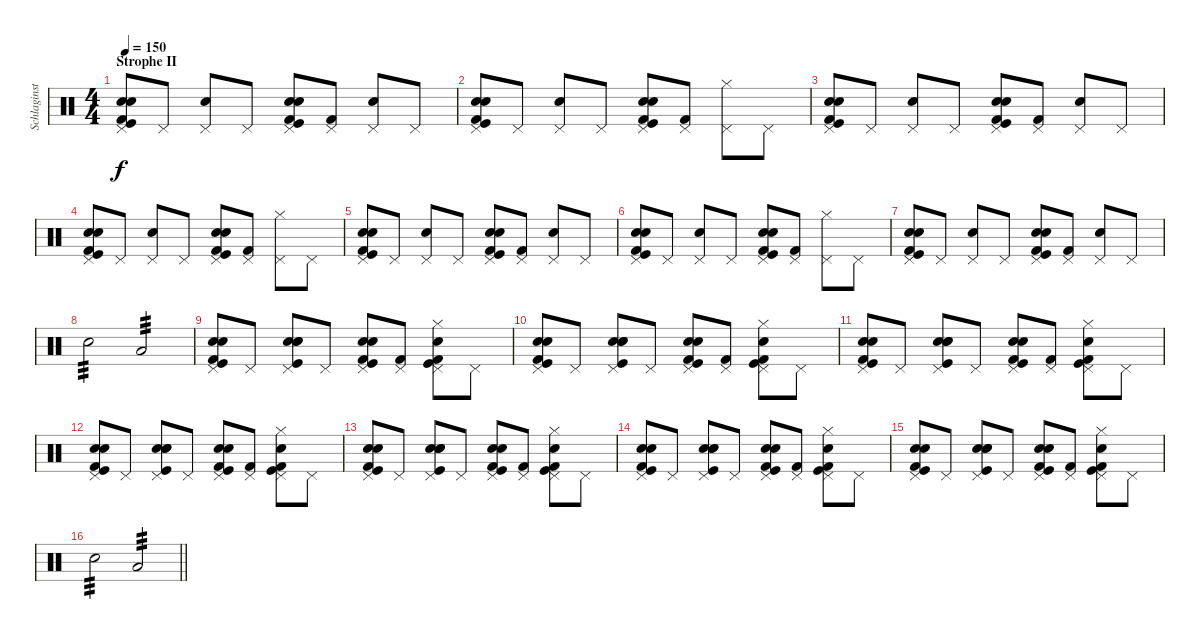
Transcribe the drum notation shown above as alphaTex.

\track ("Schlaginstrumente - Auswahl" "Schlaginst") {instrument percussion}
\staff {score}
\articulation defaults
\ts (4 4)
\section ("" "Strophe II")
\tempo 150
\clef neutral
\ks c
("Pedal Hi-Hat (hit)" "Kick (hit) 2" "Kick (hit)" "Electric Snare (hit)" "Snare (hit) 2").8{dy f} "Pedal Hi-Hat (hit)".8 ("Pedal Hi-Hat (hit)" "Electric Snare (hit)").8 "Pedal Hi-Hat (hit)".8 ("Pedal Hi-Hat (hit)" "Kick (hit) 2" "Kick (hit)" "Electric Snare (hit)" "Snare (hit) 2").8 ("Pedal Hi-Hat (hit)" "Kick (hit) 2").8 ("Pedal Hi-Hat (hit)" "Electric Snare (hit)").8 "Pedal Hi-Hat (hit)".8 |
("Pedal Hi-Hat (hit)" "Kick (hit) 2" "Kick (hit)" "Electric Snare (hit)" "Snare (hit) 2").8 "Pedal Hi-Hat (hit)".8 ("Pedal Hi-Hat (hit)" "Electric Snare (hit)").8 "Pedal Hi-Hat (hit)".8 ("Pedal Hi-Hat (hit)" "Kick (hit) 2" "Kick (hit)" "Electric Snare (hit)" "Snare (hit) 2").8 ("Pedal Hi-Hat (hit)" "Kick (hit) 2").8 ("Pedal Hi-Hat (hit)" "Hi-Hat (closed)").8 "Pedal Hi-Hat (hit)".8 |
("Pedal Hi-Hat (hit)" "Kick (hit) 2" "Kick (hit)" "Electric Snare (hit)" "Snare (hit) 2").8 "Pedal Hi-Hat (hit)".8 ("Pedal Hi-Hat (hit)" "Electric Snare (hit)").8 "Pedal Hi-Hat (hit)".8 ("Pedal Hi-Hat (hit)" "Kick (hit) 2" "Kick (hit)" "Electric Snare (hit)" "Snare (hit) 2").8 ("Pedal Hi-Hat (hit)" "Kick (hit) 2").8 ("Pedal Hi-Hat (hit)" "Electric Snare (hit)").8 "Pedal Hi-Hat (hit)".8 |
("Pedal Hi-Hat (hit)" "Kick (hit) 2" "Kick (hit)" "Electric Snare (hit)" "Snare (hit) 2").8 "Pedal Hi-Hat (hit)".8 ("Pedal Hi-Hat (hit)" "Electric Snare (hit)").8 "Pedal Hi-Hat (hit)".8 ("Pedal Hi-Hat (hit)" "Kick (hit) 2" "Kick (hit)" "Electric Snare (hit)" "Snare (hit) 2").8 ("Pedal Hi-Hat (hit)" "Kick (hit) 2").8 ("Pedal Hi-Hat (hit)" "Hi-Hat (closed)").8 "Pedal Hi-Hat (hit)".8 |
("Pedal Hi-Hat (hit)" "Kick (hit) 2" "Kick (hit)" "Electric Snare (hit)" "Snare (hit) 2").8 "Pedal Hi-Hat (hit)".8 ("Pedal Hi-Hat (hit)" "Electric Snare (hit)").8 "Pedal Hi-Hat (hit)".8 ("Pedal Hi-Hat (hit)" "Kick (hit) 2" "Kick (hit)" "Electric Snare (hit)" "Snare (hit) 2").8 ("Pedal Hi-Hat (hit)" "Kick (hit) 2").8 ("Pedal Hi-Hat (hit)" "Electric Snare (hit)").8 "Pedal Hi-Hat (hit)".8 |
("Pedal Hi-Hat (hit)" "Kick (hit) 2" "Kick (hit)" "Electric Snare (hit)" "Snare (hit) 2").8 "Pedal Hi-Hat (hit)".8 ("Pedal Hi-Hat (hit)" "Electric Snare (hit)").8 "Pedal Hi-Hat (hit)".8 ("Pedal Hi-Hat (hit)" "Kick (hit) 2" "Kick (hit)" "Electric Snare (hit)" "Snare (hit) 2").8 ("Pedal Hi-Hat (hit)" "Kick (hit) 2").8 ("Pedal Hi-Hat (hit)" "Hi-Hat (closed)").8 "Pedal Hi-Hat (hit)".8 |
("Pedal Hi-Hat (hit)" "Kick (hit) 2" "Kick (hit)" "Electric Snare (hit)" "Snare (hit) 2").8 "Pedal Hi-Hat (hit)".8 ("Pedal Hi-Hat (hit)" "Electric Snare (hit)").8 "Pedal Hi-Hat (hit)".8 ("Pedal Hi-Hat (hit)" "Kick (hit) 2" "Kick (hit)" "Electric Snare (hit)" "Snare (hit) 2").8 ("Pedal Hi-Hat (hit)" "Kick (hit) 2").8 ("Pedal Hi-Hat (hit)" "Electric Snare (hit)").8 "Pedal Hi-Hat (hit)".8 |
"Electric Snare (hit)".2{tp 3} "Low Tom (hit)".2{tp 3} |
("Pedal Hi-Hat (hit)" "Kick (hit) 2" "Kick (hit)" "Electric Snare (hit)" "Snare (hit) 2").8 "Pedal Hi-Hat (hit)".8 ("Pedal Hi-Hat (hit)" "Electric Snare (hit)" "Kick (hit)" "Electric Snare (hit)" "Snare (hit) 2").8 "Pedal Hi-Hat (hit)".8 ("Pedal Hi-Hat (hit)" "Kick (hit) 2" "Kick (hit)" "Electric Snare (hit)" "Snare (hit) 2").8 ("Pedal Hi-Hat (hit)" "Kick (hit) 2").8 ("Pedal Hi-Hat (hit)" "Hi-Hat (closed)" "Kick (hit) 2" "Kick (hit)" "Electric Snare (hit)").8 "Pedal Hi-Hat (hit)".8 |
("Pedal Hi-Hat (hit)" "Kick (hit) 2" "Kick (hit)" "Electric Snare (hit)" "Snare (hit) 2").8 "Pedal Hi-Hat (hit)".8 ("Pedal Hi-Hat (hit)" "Electric Snare (hit)" "Kick (hit)" "Electric Snare (hit)" "Snare (hit) 2").8 "Pedal Hi-Hat (hit)".8 ("Pedal Hi-Hat (hit)" "Kick (hit) 2" "Kick (hit)" "Electric Snare (hit)" "Snare (hit) 2").8 ("Pedal Hi-Hat (hit)" "Kick (hit) 2").8 ("Pedal Hi-Hat (hit)" "Hi-Hat (closed)" "Kick (hit) 2" "Kick (hit)" "Electric Snare (hit)").8 "Pedal Hi-Hat (hit)".8 |
("Pedal Hi-Hat (hit)" "Kick (hit) 2" "Kick (hit)" "Electric Snare (hit)" "Snare (hit) 2").8 "Pedal Hi-Hat (hit)".8 ("Pedal Hi-Hat (hit)" "Electric Snare (hit)" "Kick (hit)" "Electric Snare (hit)" "Snare (hit) 2").8 "Pedal Hi-Hat (hit)".8 ("Pedal Hi-Hat (hit)" "Kick (hit) 2" "Kick (hit)" "Electric Snare (hit)" "Snare (hit) 2").8 ("Pedal Hi-Hat (hit)" "Kick (hit) 2").8 ("Pedal Hi-Hat (hit)" "Hi-Hat (closed)" "Kick (hit) 2" "Kick (hit)" "Electric Snare (hit)").8 "Pedal Hi-Hat (hit)".8 |
("Pedal Hi-Hat (hit)" "Kick (hit) 2" "Kick (hit)" "Electric Snare (hit)" "Snare (hit) 2").8 "Pedal Hi-Hat (hit)".8 ("Pedal Hi-Hat (hit)" "Electric Snare (hit)" "Kick (hit)" "Electric Snare (hit)" "Snare (hit) 2").8 "Pedal Hi-Hat (hit)".8 ("Pedal Hi-Hat (hit)" "Kick (hit) 2" "Kick (hit)" "Electric Snare (hit)" "Snare (hit) 2").8 ("Pedal Hi-Hat (hit)" "Kick (hit) 2").8 ("Pedal Hi-Hat (hit)" "Hi-Hat (closed)" "Kick (hit) 2" "Kick (hit)" "Electric Snare (hit)").8 "Pedal Hi-Hat (hit)".8 |
("Pedal Hi-Hat (hit)" "Kick (hit) 2" "Kick (hit)" "Electric Snare (hit)" "Snare (hit) 2").8 "Pedal Hi-Hat (hit)".8 ("Pedal Hi-Hat (hit)" "Electric Snare (hit)" "Kick (hit)" "Electric Snare (hit)" "Snare (hit) 2").8 "Pedal Hi-Hat (hit)".8 ("Pedal Hi-Hat (hit)" "Kick (hit) 2" "Kick (hit)" "Electric Snare (hit)" "Snare (hit) 2").8 ("Pedal Hi-Hat (hit)" "Kick (hit) 2").8 ("Pedal Hi-Hat (hit)" "Hi-Hat (closed)" "Kick (hit) 2" "Kick (hit)" "Electric Snare (hit)").8 "Pedal Hi-Hat (hit)".8 |
("Pedal Hi-Hat (hit)" "Kick (hit) 2" "Kick (hit)" "Electric Snare (hit)" "Snare (hit) 2").8 "Pedal Hi-Hat (hit)".8 ("Pedal Hi-Hat (hit)" "Electric Snare (hit)" "Kick (hit)" "Electric Snare (hit)" "Snare (hit) 2").8 "Pedal Hi-Hat (hit)".8 ("Pedal Hi-Hat (hit)" "Kick (hit) 2" "Kick (hit)" "Electric Snare (hit)" "Snare (hit) 2").8 ("Pedal Hi-Hat (hit)" "Kick (hit) 2").8 ("Pedal Hi-Hat (hit)" "Hi-Hat (closed)" "Kick (hit) 2" "Kick (hit)" "Electric Snare (hit)").8 "Pedal Hi-Hat (hit)".8 |
("Pedal Hi-Hat (hit)" "Kick (hit) 2" "Kick (hit)" "Electric Snare (hit)" "Snare (hit) 2").8 "Pedal Hi-Hat (hit)".8 ("Pedal Hi-Hat (hit)" "Electric Snare (hit)" "Kick (hit)" "Electric Snare (hit)" "Snare (hit) 2").8 "Pedal Hi-Hat (hit)".8 ("Pedal Hi-Hat (hit)" "Kick (hit) 2" "Kick (hit)" "Electric Snare (hit)" "Snare (hit) 2").8 ("Pedal Hi-Hat (hit)" "Kick (hit) 2").8 ("Pedal Hi-Hat (hit)" "Hi-Hat (closed)" "Kick (hit) 2" "Kick (hit)" "Electric Snare (hit)").8 "Pedal Hi-Hat (hit)".8 |
\barLineRight lightlight "Electric Snare (hit)".2{tp 3} "Low Tom (hit)".2{tp 3}
